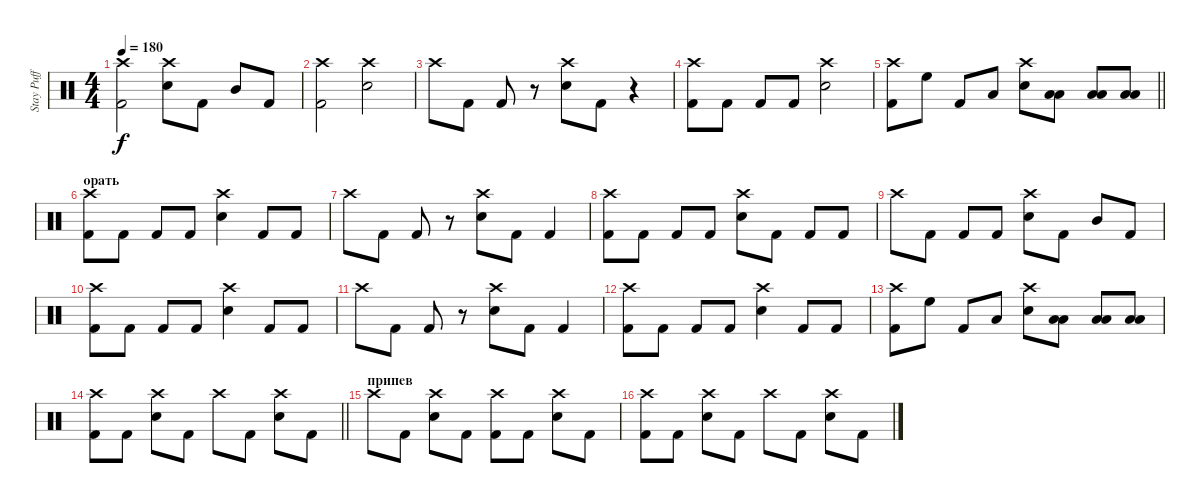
\track ("Stay Puff" "Stay Puff") {instrument percussion}
\staff {score}
\articulation defaults
\ts (4 4)
\tempo 180
\clef neutral
\ks c
("Crash high (hit)" "Kick (hit) 2").2{dy f} ("Crash high (hit)" "Snare (hit) 2").8 "Kick (hit) 2".8 "Mid Tom (hit)".8 "Kick (hit) 2".8 |
("Crash high (hit)" "Kick (hit) 2").2 ("Crash high (hit)" "Snare (hit) 2").2 |
"Crash high (hit)".8 "Kick (hit) 2".8 "Kick (hit) 2".8 r.8 ("Crash high (hit)" "Snare (hit) 2").8 "Kick (hit) 2".8 r.4 |
("Crash high (hit)" "Kick (hit) 2").8 "Kick (hit) 2".8 "Kick (hit) 2".8 "Kick (hit) 2".8 ("Crash high (hit)" "Snare (hit) 2").2 |
\barLineRight lightlight
("Crash high (hit)" "Kick (hit) 2").8 "High Floor Tom (hit)".8 "Kick (hit) 2".8 "Low Tom (hit)".8 ("Crash high (hit)" "Snare (hit) 2").8 ("Low Tom (hit)" "Low Floor Tom (hit)").8 ("Low Tom (hit)" "Low Floor Tom (hit)").8 ("Low Tom (hit)" "Low Floor Tom (hit)").8 |
\section ("" "орать")
("Crash high (hit)" "Kick (hit) 2").8{volume 13} "Kick (hit) 2".8 "Kick (hit) 2".8 "Kick (hit) 2".8 ("Crash high (hit)" "Snare (hit) 2").4 "Kick (hit) 2".8 "Kick (hit) 2".8 |
"Crash high (hit)".8 "Kick (hit) 2".8 "Kick (hit) 2".8 r.8 ("Crash high (hit)" "Snare (hit) 2").8 "Kick (hit) 2".8 "Kick (hit) 2".4 |
("Crash high (hit)" "Kick (hit) 2").8 "Kick (hit) 2".8 "Kick (hit) 2".8 "Kick (hit) 2".8 ("Crash high (hit)" "Snare (hit) 2").8 "Kick (hit) 2".8 "Kick (hit) 2".8 "Kick (hit) 2".8 |
"Crash high (hit)".8 "Kick (hit) 2".8 "Kick (hit) 2".8 "Kick (hit) 2".8 ("Crash high (hit)" "Snare (hit) 2").8 "Kick (hit) 2".8 "Mid Tom (hit)".8 "Kick (hit) 2".8 |
("Crash high (hit)" "Kick (hit) 2").8 "Kick (hit) 2".8 "Kick (hit) 2".8 "Kick (hit) 2".8 ("Crash high (hit)" "Snare (hit) 2").4 "Kick (hit) 2".8 "Kick (hit) 2".8 |
"Crash high (hit)".8 "Kick (hit) 2".8 "Kick (hit) 2".8 r.8 ("Crash high (hit)" "Snare (hit) 2").8 "Kick (hit) 2".8 "Kick (hit) 2".4 |
("Crash high (hit)" "Kick (hit) 2").8 "Kick (hit) 2".8 "Kick (hit) 2".8 "Kick (hit) 2".8 ("Crash high (hit)" "Snare (hit) 2").4 "Kick (hit) 2".8 "Kick (hit) 2".8 |
("Crash high (hit)" "Kick (hit) 2").8 "High Floor Tom (hit)".8 "Kick (hit) 2".8 "Low Tom (hit)".8 ("Crash high (hit)" "Snare (hit) 2").8 ("Low Tom (hit)" "Low Floor Tom (hit)").8 ("Low Tom (hit)" "Low Floor Tom (hit)").8 ("Low Tom (hit)" "Low Floor Tom (hit)").8 |
\barLineRight lightlight
("Crash high (hit)" "Kick (hit) 2").8 "Kick (hit) 2".8 ("Crash high (hit)" "Snare (hit) 2").8 "Kick (hit) 2".8 "Crash high (hit)".8 "Kick (hit) 2".8 ("Crash high (hit)" "Snare (hit) 2").8 "Kick (hit) 2".8 |
\section ("" "припев")
"Crash high (hit)".8 "Kick (hit) 2".8 ("Crash high (hit)" "Snare (hit) 2").8 "Kick (hit) 2".8 ("Crash high (hit)" "Kick (hit) 2").8 "Kick (hit) 2".8 ("Crash high (hit)" "Snare (hit) 2").8 "Kick (hit) 2".8 |
("Crash high (hit)" "Kick (hit) 2").8 "Kick (hit) 2".8 ("Crash high (hit)" "Snare (hit) 2").8 "Kick (hit) 2".8 "Crash high (hit)".8 "Kick (hit) 2".8 ("Crash high (hit)" "Snare (hit) 2").8 "Kick (hit) 2".8
